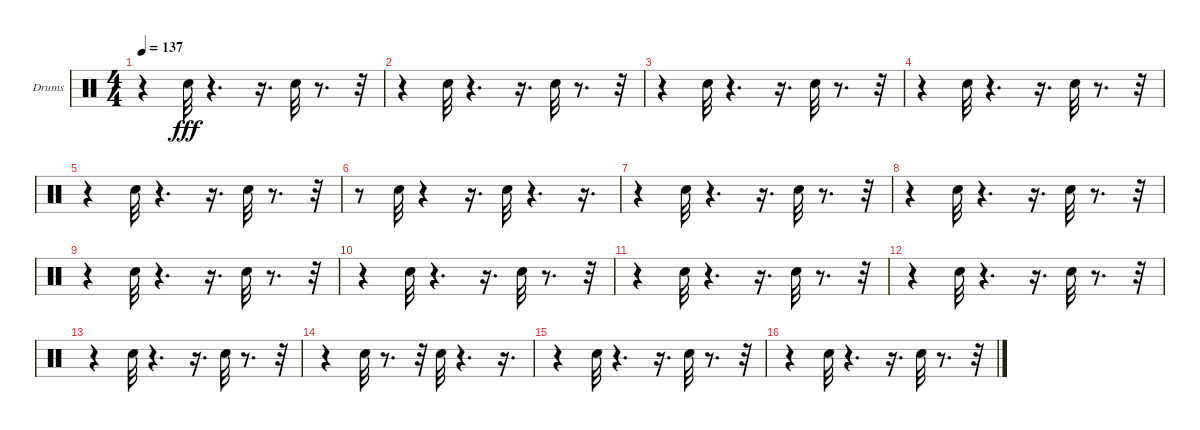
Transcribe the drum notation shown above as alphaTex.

\bracketExtendMode groupsimilarinstruments
\firstSystemTrackNameOrientation horizontal
\otherSystemsTrackNameOrientation horizontal
\track ("Drumkit" "Drums") {instrument percussion}
\staff {score}
\articulation defaults
\ts (4 4)
\tempo 137
\clef neutral
\ks c
r.4{dy fff} "Snare (hit) 2".32 r.4{d} r.16{d} "Snare (hit) 2".32 r.8{d} r.32 |
r.4 "Snare (hit) 2".32 r.4{d} r.16{d} "Snare (hit) 2".32 r.8{d} r.32 |
r.4 "Snare (hit) 2".32 r.4{d} r.16{d} "Snare (hit) 2".32 r.8{d} r.32 |
r.4 "Snare (hit) 2".32 r.4{d} r.16{d} "Snare (hit) 2".32 r.8{d} r.32 |
r.4 "Snare (hit) 2".32 r.4{d} r.16{d} "Snare (hit) 2".32 r.8{d} r.32 |
r.8 "Snare (hit) 2".32 r.4 r.16{d} "Snare (hit) 2".32 r.4{d} r.16{d} |
r.4 "Snare (hit) 2".32 r.4{d} r.16{d} "Snare (hit) 2".32 r.8{d} r.32 |
r.4 "Snare (hit) 2".32 r.4{d} r.16{d} "Snare (hit) 2".32 r.8{d} r.32 |
r.4 "Snare (hit) 2".32 r.4{d} r.16{d} "Snare (hit) 2".32 r.8{d} r.32 |
r.4 "Snare (hit) 2".32 r.4{d} r.16{d} "Snare (hit) 2".32 r.8{d} r.32 |
r.4 "Snare (hit) 2".32 r.4{d} r.16{d} "Snare (hit) 2".32 r.8{d} r.32 |
r.4 "Snare (hit) 2".32 r.4{d} r.16{d} "Snare (hit) 2".32 r.8{d} r.32 |
r.4 "Snare (hit) 2".32 r.4{d} r.16{d} "Snare (hit) 2".32 r.8{d} r.32 |
r.4 "Snare (hit) 2".32 r.8{d} r.32 "Snare (hit) 2".32 r.4{d} r.16{d} |
r.4 "Snare (hit) 2".32 r.4{d} r.16{d} "Snare (hit) 2".32 r.8{d} r.32 |
r.4 "Snare (hit) 2".32 r.4{d} r.16{d} "Snare (hit) 2".32 r.8{d} r.32
